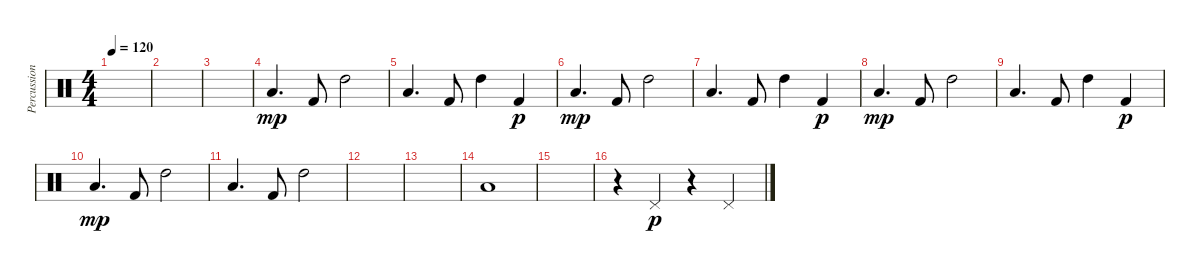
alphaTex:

\track ("Percussions" "Percussion") {instrument percussion}
\staff {score}
\articulation defaults
\ts (4 4)
\tempo 120
\clef neutral
\ks c
|
|
|
"Low Floor Tom (hit)".4{d dy mp} "Kick (hit) 2".8 "High Tom (hit)".2 |
"Low Floor Tom (hit)".4{d} "Kick (hit) 2".8 "High Tom (hit)".4 "Kick (hit) 2".4{dy p} |
"Low Floor Tom (hit)".4{d dy mp} "Kick (hit) 2".8 "High Tom (hit)".2 |
"Low Floor Tom (hit)".4{d} "Kick (hit) 2".8 "High Tom (hit)".4 "Kick (hit) 2".4{dy p} |
"Low Floor Tom (hit)".4{d dy mp} "Kick (hit) 2".8 "High Tom (hit)".2 |
"Low Floor Tom (hit)".4{d} "Kick (hit) 2".8 "High Tom (hit)".4 "Kick (hit) 2".4{dy p} |
"Low Floor Tom (hit)".4{d dy mp} "Kick (hit) 2".8 "High Tom (hit)".2 |
"Low Floor Tom (hit)".4{d} "Kick (hit) 2".8 "High Tom (hit)".2 |
|
|
"Low Floor Tom (hit)".1 |
|
r.4 "Pedal Hi-Hat (hit)".4{dy p} r.4 "Pedal Hi-Hat (hit)".4
